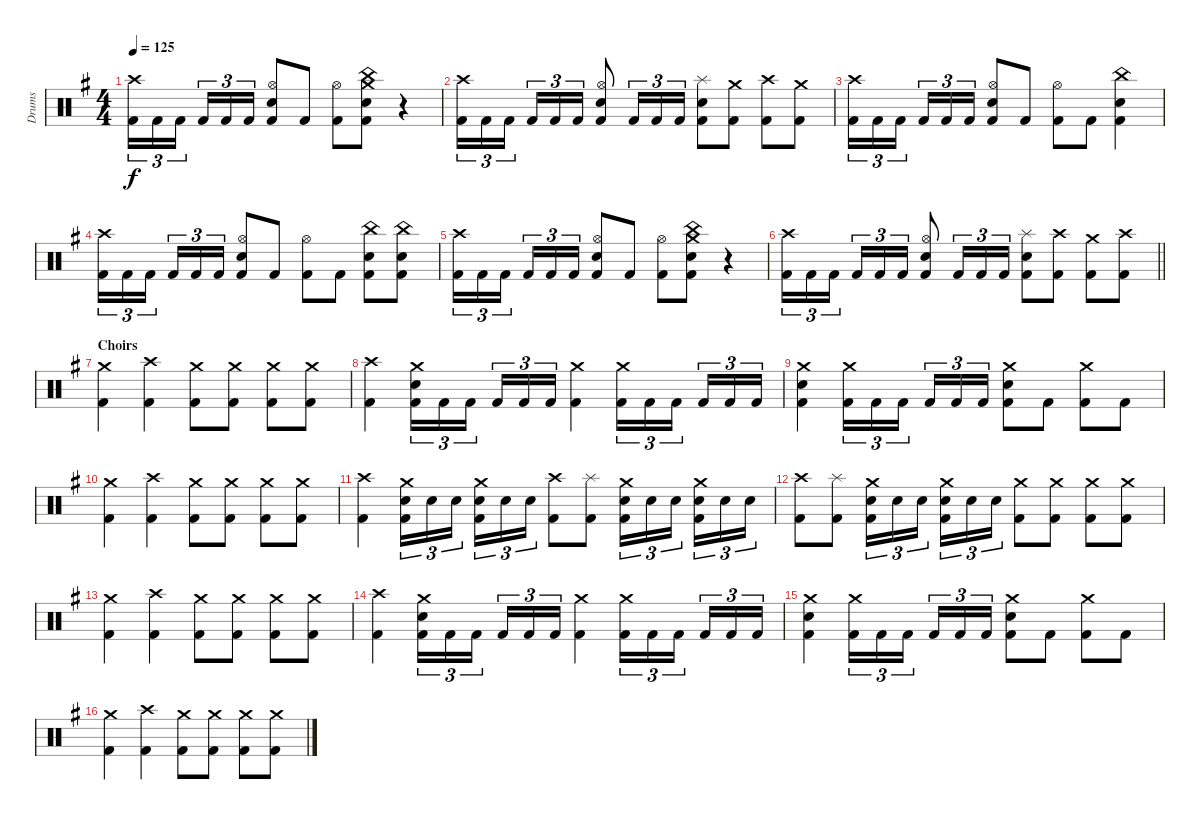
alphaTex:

\track ("Drums" "Drums") {instrument percussion}
\staff {score}
\articulation defaults
\ts (4 4)
\tempo 125
\clef neutral
\ks g
("Crash high (hit)" "Kick (hit) 2").16{tu (3 2) dy f} "Kick (hit) 2".16{tu (3 2)} "Kick (hit) 2".16{tu (3 2) beam splitsecondary} "Kick (hit) 2".16{tu (3 2)} "Kick (hit) 2".16{tu (3 2)} "Kick (hit) 2".16{tu (3 2)} ("Hi-Hat (open)" "Electric Snare (hit)" "Kick (hit) 2").8 "Kick (hit) 2".8 ("Hi-Hat (open)" "Kick (hit) 2").8 ("China (hit)" "Crash medium (hit)" "Electric Snare (hit)" "Kick (hit) 2").8 r.4 |
("Crash high (hit)" "Kick (hit) 2").16{tu (3 2)} "Kick (hit) 2".16{tu (3 2)} "Kick (hit) 2".16{tu (3 2) beam splitsecondary} "Kick (hit) 2".16{tu (3 2)} "Kick (hit) 2".16{tu (3 2)} "Kick (hit) 2".16{tu (3 2)} ("Hi-Hat (open)" "Electric Snare (hit)" "Kick (hit) 2").8 "Kick (hit) 2".16{tu (3 2)} "Kick (hit) 2".16{tu (3 2)} "Kick (hit) 2".16{tu (3 2)} ("Splash (hit)" "Electric Snare (hit)" "Kick (hit) 2").8 ("Crash medium (hit)" "Kick (hit) 2").8 ("Crash high (hit)" "Kick (hit) 2").8 ("Crash medium (hit)" "Kick (hit) 2").8 |
("Crash high (hit)" "Kick (hit) 2").16{tu (3 2)} "Kick (hit) 2".16{tu (3 2)} "Kick (hit) 2".16{tu (3 2) beam splitsecondary} "Kick (hit) 2".16{tu (3 2)} "Kick (hit) 2".16{tu (3 2)} "Kick (hit) 2".16{tu (3 2)} ("Hi-Hat (open)" "Electric Snare (hit)" "Kick (hit) 2").8 "Kick (hit) 2".8 ("Hi-Hat (open)" "Kick (hit) 2").8 "Kick (hit) 2".8 ("China (hit)" "Electric Snare (hit)" "Kick (hit) 2").4 |
("Crash high (hit)" "Kick (hit) 2").16{tu (3 2)} "Kick (hit) 2".16{tu (3 2)} "Kick (hit) 2".16{tu (3 2) beam splitsecondary} "Kick (hit) 2".16{tu (3 2)} "Kick (hit) 2".16{tu (3 2)} "Kick (hit) 2".16{tu (3 2)} ("Hi-Hat (open)" "Electric Snare (hit)" "Kick (hit) 2").8 "Kick (hit) 2".8 ("Hi-Hat (open)" "Kick (hit) 2").8 "Kick (hit) 2".8 ("China (hit)" "Electric Snare (hit)" "Kick (hit) 2").8 ("China (hit)" "Electric Snare (hit)" "Kick (hit) 2").8 |
("Crash high (hit)" "Kick (hit) 2").16{tu (3 2)} "Kick (hit) 2".16{tu (3 2)} "Kick (hit) 2".16{tu (3 2) beam splitsecondary} "Kick (hit) 2".16{tu (3 2)} "Kick (hit) 2".16{tu (3 2)} "Kick (hit) 2".16{tu (3 2)} ("Hi-Hat (open)" "Electric Snare (hit)" "Kick (hit) 2").8 "Kick (hit) 2".8 ("Hi-Hat (open)" "Kick (hit) 2").8 ("China (hit)" "Crash medium (hit)" "Electric Snare (hit)" "Kick (hit) 2").8 r.4 |
\barLineRight lightlight
("Crash high (hit)" "Kick (hit) 2").16{tu (3 2)} "Kick (hit) 2".16{tu (3 2)} "Kick (hit) 2".16{tu (3 2) beam splitsecondary} "Kick (hit) 2".16{tu (3 2)} "Kick (hit) 2".16{tu (3 2)} "Kick (hit) 2".16{tu (3 2)} ("Hi-Hat (open)" "Electric Snare (hit)" "Kick (hit) 2").8 "Kick (hit) 2".16{tu (3 2)} "Kick (hit) 2".16{tu (3 2)} "Kick (hit) 2".16{tu (3 2)} ("Splash (hit)" "Electric Snare (hit)" "Kick (hit) 2").8 ("Crash high (hit)" "Kick (hit) 2").8 ("Crash medium (hit)" "Kick (hit) 2").8 ("Crash high (hit)" "Kick (hit) 2").8 |
\section ("" "Choirs")
("Crash medium (hit)" "Kick (hit) 2").4 ("Crash high (hit)" "Kick (hit) 2").4 ("Crash medium (hit)" "Kick (hit) 2").8 ("Crash medium (hit)" "Kick (hit) 2").8 ("Crash medium (hit)" "Kick (hit) 2").8 ("Crash medium (hit)" "Kick (hit) 2").8 |
("Crash high (hit)" "Kick (hit) 2").4 ("Crash medium (hit)" "Electric Snare (hit)" "Kick (hit) 2").16{tu (3 2)} "Kick (hit) 2".16{tu (3 2)} "Kick (hit) 2".16{tu (3 2) beam splitsecondary} "Kick (hit) 2".16{tu (3 2)} "Kick (hit) 2".16{tu (3 2)} "Kick (hit) 2".16{tu (3 2)} ("Crash medium (hit)" "Kick (hit) 2").4 ("Crash medium (hit)" "Kick (hit) 2").16{tu (3 2)} "Kick (hit) 2".16{tu (3 2)} "Kick (hit) 2".16{tu (3 2) beam splitsecondary} "Kick (hit) 2".16{tu (3 2)} "Kick (hit) 2".16{tu (3 2)} "Kick (hit) 2".16{tu (3 2)} |
("Crash medium (hit)" "Electric Snare (hit)" "Kick (hit) 2").4 ("Crash medium (hit)" "Kick (hit) 2").16{tu (3 2)} "Kick (hit) 2".16{tu (3 2)} "Kick (hit) 2".16{tu (3 2) beam splitsecondary} "Kick (hit) 2".16{tu (3 2)} "Kick (hit) 2".16{tu (3 2)} "Kick (hit) 2".16{tu (3 2)} ("Crash medium (hit)" "Electric Snare (hit)" "Kick (hit) 2").8 "Kick (hit) 2".8 ("Crash medium (hit)" "Kick (hit) 2").8 "Kick (hit) 2".8 |
("Crash medium (hit)" "Kick (hit) 2").4 ("Crash high (hit)" "Kick (hit) 2").4 ("Crash medium (hit)" "Kick (hit) 2").8 ("Crash medium (hit)" "Kick (hit) 2").8 ("Crash medium (hit)" "Kick (hit) 2").8 ("Crash medium (hit)" "Kick (hit) 2").8 |
("Crash high (hit)" "Kick (hit) 2").4 ("Crash medium (hit)" "Electric Snare (hit)" "Kick (hit) 2").16{tu (3 2)} "Electric Snare (hit)".16{tu (3 2)} "Electric Snare (hit)".16{tu (3 2) beam splitsecondary} ("Crash medium (hit)" "Electric Snare (hit)" "Kick (hit) 2").16{tu (3 2)} "Electric Snare (hit)".16{tu (3 2)} "Electric Snare (hit)".16{tu (3 2)} ("Crash high (hit)" "Kick (hit) 2").8 ("Splash (hit)" "Kick (hit) 2").8 ("Crash medium (hit)" "Electric Snare (hit)" "Kick (hit) 2").16{tu (3 2)} "Electric Snare (hit)".16{tu (3 2)} "Electric Snare (hit)".16{tu (3 2) beam splitsecondary} ("Crash medium (hit)" "Electric Snare (hit)" "Kick (hit) 2").16{tu (3 2)} "Electric Snare (hit)".16{tu (3 2)} "Electric Snare (hit)".16{tu (3 2)} |
("Crash high (hit)" "Kick (hit) 2").8 ("Splash (hit)" "Kick (hit) 2").8 ("Crash medium (hit)" "Electric Snare (hit)" "Kick (hit) 2").16{tu (3 2)} "Electric Snare (hit)".16{tu (3 2)} "Electric Snare (hit)".16{tu (3 2) beam splitsecondary} ("Crash medium (hit)" "Electric Snare (hit)" "Kick (hit) 2").16{tu (3 2)} "Electric Snare (hit)".16{tu (3 2)} "Electric Snare (hit)".16{tu (3 2)} ("Crash medium (hit)" "Kick (hit) 2").8 ("Crash medium (hit)" "Kick (hit) 2").8 ("Crash medium (hit)" "Kick (hit) 2").8 ("Crash medium (hit)" "Kick (hit) 2").8 |
("Crash medium (hit)" "Kick (hit) 2").4 ("Crash high (hit)" "Kick (hit) 2").4 ("Crash medium (hit)" "Kick (hit) 2").8 ("Crash medium (hit)" "Kick (hit) 2").8 ("Crash medium (hit)" "Kick (hit) 2").8 ("Crash medium (hit)" "Kick (hit) 2").8 |
("Crash high (hit)" "Kick (hit) 2").4 ("Crash medium (hit)" "Electric Snare (hit)" "Kick (hit) 2").16{tu (3 2)} "Kick (hit) 2".16{tu (3 2)} "Kick (hit) 2".16{tu (3 2) beam splitsecondary} "Kick (hit) 2".16{tu (3 2)} "Kick (hit) 2".16{tu (3 2)} "Kick (hit) 2".16{tu (3 2)} ("Crash medium (hit)" "Kick (hit) 2").4 ("Crash medium (hit)" "Kick (hit) 2").16{tu (3 2)} "Kick (hit) 2".16{tu (3 2)} "Kick (hit) 2".16{tu (3 2) beam splitsecondary} "Kick (hit) 2".16{tu (3 2)} "Kick (hit) 2".16{tu (3 2)} "Kick (hit) 2".16{tu (3 2)} |
("Crash medium (hit)" "Electric Snare (hit)" "Kick (hit) 2").4 ("Crash medium (hit)" "Kick (hit) 2").16{tu (3 2)} "Kick (hit) 2".16{tu (3 2)} "Kick (hit) 2".16{tu (3 2) beam splitsecondary} "Kick (hit) 2".16{tu (3 2)} "Kick (hit) 2".16{tu (3 2)} "Kick (hit) 2".16{tu (3 2)} ("Crash medium (hit)" "Electric Snare (hit)" "Kick (hit) 2").8 "Kick (hit) 2".8 ("Crash medium (hit)" "Kick (hit) 2").8 "Kick (hit) 2".8 |
("Crash medium (hit)" "Kick (hit) 2").4 ("Crash high (hit)" "Kick (hit) 2").4 ("Crash medium (hit)" "Kick (hit) 2").8 ("Crash medium (hit)" "Kick (hit) 2").8 ("Crash medium (hit)" "Kick (hit) 2").8 ("Crash medium (hit)" "Kick (hit) 2").8
